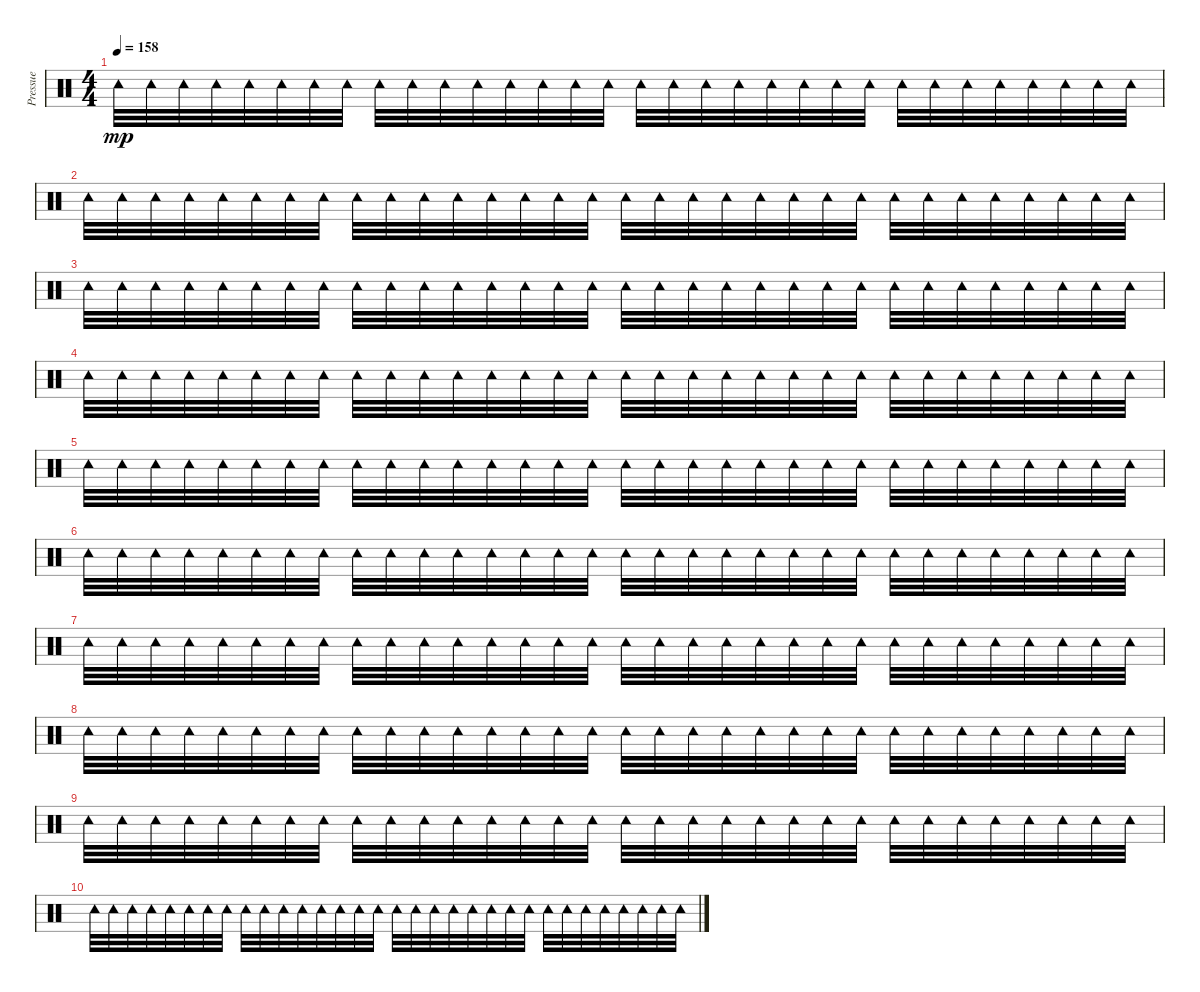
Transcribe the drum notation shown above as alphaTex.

\track ("Pressue" "Pressue") {instrument percussion}
\staff {score}
\articulation defaults
\ts (4 4)
\tempo 158
\clef neutral
\ks c "Tambourine (hit)".32{dy mp} "Tambourine (hit)".32 "Tambourine (hit)".32 "Tambourine (hit)".32 "Tambourine (hit)".32 "Tambourine (hit)".32 "Tambourine (hit)".32 "Tambourine (hit)".32 "Tambourine (hit)".32 "Tambourine (hit)".32 "Tambourine (hit)".32 "Tambourine (hit)".32 "Tambourine (hit)".32 "Tambourine (hit)".32 "Tambourine (hit)".32 "Tambourine (hit)".32 "Tambourine (hit)".32 "Tambourine (hit)".32 "Tambourine (hit)".32 "Tambourine (hit)".32 "Tambourine (hit)".32 "Tambourine (hit)".32 "Tambourine (hit)".32 "Tambourine (hit)".32 "Tambourine (hit)".32 "Tambourine (hit)".32 "Tambourine (hit)".32 "Tambourine (hit)".32 "Tambourine (hit)".32 "Tambourine (hit)".32 "Tambourine (hit)".32 "Tambourine (hit)".32
|
"Tambourine (hit)".32 "Tambourine (hit)".32 "Tambourine (hit)".32 "Tambourine (hit)".32 "Tambourine (hit)".32 "Tambourine (hit)".32 "Tambourine (hit)".32 "Tambourine (hit)".32 "Tambourine (hit)".32 "Tambourine (hit)".32 "Tambourine (hit)".32 "Tambourine (hit)".32 "Tambourine (hit)".32 "Tambourine (hit)".32 "Tambourine (hit)".32 "Tambourine (hit)".32 "Tambourine (hit)".32 "Tambourine (hit)".32 "Tambourine (hit)".32 "Tambourine (hit)".32 "Tambourine (hit)".32 "Tambourine (hit)".32 "Tambourine (hit)".32 "Tambourine (hit)".32 "Tambourine (hit)".32 "Tambourine (hit)".32 "Tambourine (hit)".32 "Tambourine (hit)".32 "Tambourine (hit)".32 "Tambourine (hit)".32 "Tambourine (hit)".32 "Tambourine (hit)".32 |
"Tambourine (hit)".32 "Tambourine (hit)".32 "Tambourine (hit)".32 "Tambourine (hit)".32 "Tambourine (hit)".32 "Tambourine (hit)".32 "Tambourine (hit)".32 "Tambourine (hit)".32 "Tambourine (hit)".32 "Tambourine (hit)".32 "Tambourine (hit)".32 "Tambourine (hit)".32 "Tambourine (hit)".32 "Tambourine (hit)".32 "Tambourine (hit)".32 "Tambourine (hit)".32 "Tambourine (hit)".32 "Tambourine (hit)".32 "Tambourine (hit)".32 "Tambourine (hit)".32 "Tambourine (hit)".32 "Tambourine (hit)".32 "Tambourine (hit)".32 "Tambourine (hit)".32 "Tambourine (hit)".32 "Tambourine (hit)".32 "Tambourine (hit)".32 "Tambourine (hit)".32 "Tambourine (hit)".32 "Tambourine (hit)".32 "Tambourine (hit)".32 "Tambourine (hit)".32 |
"Tambourine (hit)".32 "Tambourine (hit)".32 "Tambourine (hit)".32 "Tambourine (hit)".32 "Tambourine (hit)".32 "Tambourine (hit)".32 "Tambourine (hit)".32 "Tambourine (hit)".32 "Tambourine (hit)".32 "Tambourine (hit)".32 "Tambourine (hit)".32 "Tambourine (hit)".32 "Tambourine (hit)".32 "Tambourine (hit)".32 "Tambourine (hit)".32 "Tambourine (hit)".32 "Tambourine (hit)".32 "Tambourine (hit)".32 "Tambourine (hit)".32 "Tambourine (hit)".32 "Tambourine (hit)".32 "Tambourine (hit)".32 "Tambourine (hit)".32 "Tambourine (hit)".32 "Tambourine (hit)".32 "Tambourine (hit)".32 "Tambourine (hit)".32 "Tambourine (hit)".32 "Tambourine (hit)".32 "Tambourine (hit)".32 "Tambourine (hit)".32 "Tambourine (hit)".32 |
"Tambourine (hit)".32 "Tambourine (hit)".32 "Tambourine (hit)".32 "Tambourine (hit)".32 "Tambourine (hit)".32 "Tambourine (hit)".32 "Tambourine (hit)".32 "Tambourine (hit)".32 "Tambourine (hit)".32 "Tambourine (hit)".32 "Tambourine (hit)".32 "Tambourine (hit)".32 "Tambourine (hit)".32 "Tambourine (hit)".32 "Tambourine (hit)".32 "Tambourine (hit)".32 "Tambourine (hit)".32 "Tambourine (hit)".32 "Tambourine (hit)".32 "Tambourine (hit)".32 "Tambourine (hit)".32 "Tambourine (hit)".32 "Tambourine (hit)".32 "Tambourine (hit)".32 "Tambourine (hit)".32 "Tambourine (hit)".32 "Tambourine (hit)".32 "Tambourine (hit)".32 "Tambourine (hit)".32 "Tambourine (hit)".32 "Tambourine (hit)".32 "Tambourine (hit)".32 |
"Tambourine (hit)".32 "Tambourine (hit)".32 "Tambourine (hit)".32 "Tambourine (hit)".32 "Tambourine (hit)".32 "Tambourine (hit)".32 "Tambourine (hit)".32 "Tambourine (hit)".32 "Tambourine (hit)".32 "Tambourine (hit)".32 "Tambourine (hit)".32 "Tambourine (hit)".32 "Tambourine (hit)".32 "Tambourine (hit)".32 "Tambourine (hit)".32 "Tambourine (hit)".32 "Tambourine (hit)".32 "Tambourine (hit)".32 "Tambourine (hit)".32 "Tambourine (hit)".32 "Tambourine (hit)".32 "Tambourine (hit)".32 "Tambourine (hit)".32 "Tambourine (hit)".32 "Tambourine (hit)".32 "Tambourine (hit)".32 "Tambourine (hit)".32 "Tambourine (hit)".32 "Tambourine (hit)".32 "Tambourine (hit)".32 "Tambourine (hit)".32 "Tambourine (hit)".32 |
"Tambourine (hit)".32 "Tambourine (hit)".32 "Tambourine (hit)".32 "Tambourine (hit)".32 "Tambourine (hit)".32 "Tambourine (hit)".32 "Tambourine (hit)".32 "Tambourine (hit)".32 "Tambourine (hit)".32 "Tambourine (hit)".32 "Tambourine (hit)".32 "Tambourine (hit)".32 "Tambourine (hit)".32 "Tambourine (hit)".32 "Tambourine (hit)".32 "Tambourine (hit)".32 "Tambourine (hit)".32 "Tambourine (hit)".32 "Tambourine (hit)".32 "Tambourine (hit)".32 "Tambourine (hit)".32 "Tambourine (hit)".32 "Tambourine (hit)".32 "Tambourine (hit)".32 "Tambourine (hit)".32 "Tambourine (hit)".32 "Tambourine (hit)".32 "Tambourine (hit)".32 "Tambourine (hit)".32 "Tambourine (hit)".32 "Tambourine (hit)".32 "Tambourine (hit)".32 |
"Tambourine (hit)".32 "Tambourine (hit)".32 "Tambourine (hit)".32 "Tambourine (hit)".32 "Tambourine (hit)".32 "Tambourine (hit)".32 "Tambourine (hit)".32 "Tambourine (hit)".32 "Tambourine (hit)".32 "Tambourine (hit)".32 "Tambourine (hit)".32 "Tambourine (hit)".32 "Tambourine (hit)".32 "Tambourine (hit)".32 "Tambourine (hit)".32 "Tambourine (hit)".32 "Tambourine (hit)".32 "Tambourine (hit)".32 "Tambourine (hit)".32 "Tambourine (hit)".32 "Tambourine (hit)".32 "Tambourine (hit)".32 "Tambourine (hit)".32 "Tambourine (hit)".32 "Tambourine (hit)".32 "Tambourine (hit)".32 "Tambourine (hit)".32 "Tambourine (hit)".32 "Tambourine (hit)".32 "Tambourine (hit)".32 "Tambourine (hit)".32 "Tambourine (hit)".32 |
"Tambourine (hit)".32 "Tambourine (hit)".32 "Tambourine (hit)".32 "Tambourine (hit)".32 "Tambourine (hit)".32 "Tambourine (hit)".32 "Tambourine (hit)".32 "Tambourine (hit)".32 "Tambourine (hit)".32 "Tambourine (hit)".32 "Tambourine (hit)".32 "Tambourine (hit)".32 "Tambourine (hit)".32 "Tambourine (hit)".32 "Tambourine (hit)".32 "Tambourine (hit)".32 "Tambourine (hit)".32 "Tambourine (hit)".32 "Tambourine (hit)".32 "Tambourine (hit)".32 "Tambourine (hit)".32 "Tambourine (hit)".32 "Tambourine (hit)".32 "Tambourine (hit)".32 "Tambourine (hit)".32 "Tambourine (hit)".32 "Tambourine (hit)".32 "Tambourine (hit)".32 "Tambourine (hit)".32 "Tambourine (hit)".32 "Tambourine (hit)".32 "Tambourine (hit)".32 |
"Tambourine (hit)".32 "Tambourine (hit)".32 "Tambourine (hit)".32 "Tambourine (hit)".32 "Tambourine (hit)".32 "Tambourine (hit)".32 "Tambourine (hit)".32 "Tambourine (hit)".32 "Tambourine (hit)".32 "Tambourine (hit)".32 "Tambourine (hit)".32 "Tambourine (hit)".32 "Tambourine (hit)".32 "Tambourine (hit)".32 "Tambourine (hit)".32 "Tambourine (hit)".32 "Tambourine (hit)".32 "Tambourine (hit)".32 "Tambourine (hit)".32 "Tambourine (hit)".32 "Tambourine (hit)".32 "Tambourine (hit)".32 "Tambourine (hit)".32 "Tambourine (hit)".32 "Tambourine (hit)".32 "Tambourine (hit)".32 "Tambourine (hit)".32 "Tambourine (hit)".32 "Tambourine (hit)".32 "Tambourine (hit)".32 "Tambourine (hit)".32 "Tambourine (hit)".32
